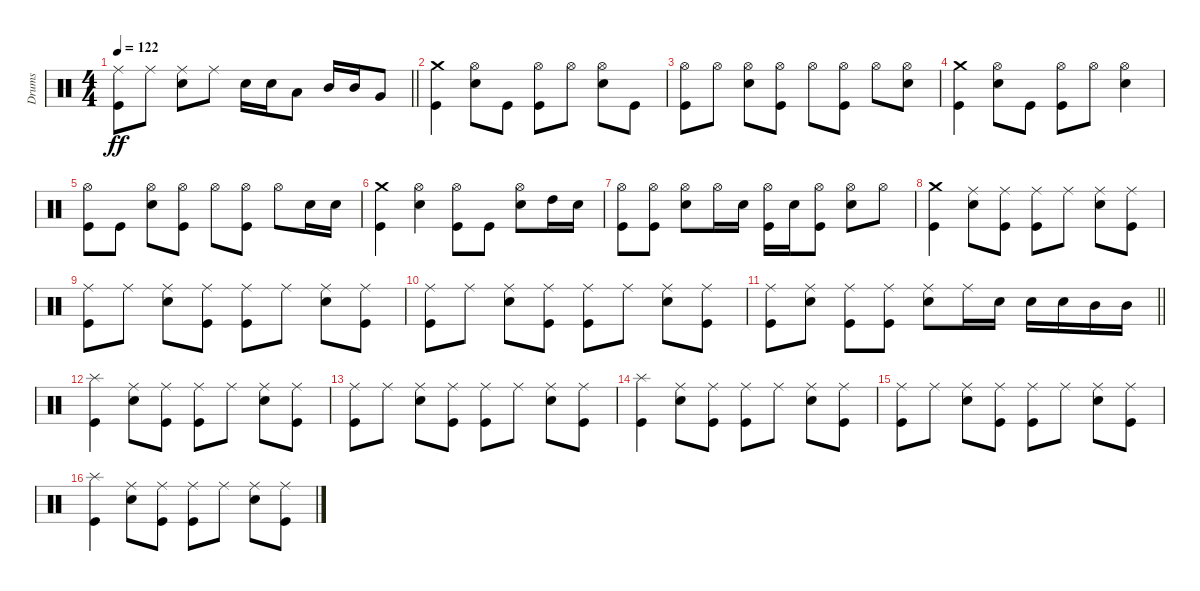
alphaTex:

\track ("Drums" "Drums") {instrument percussion}
\staff {score}
\articulation defaults
\ts (4 4)
\tempo 122
\clef neutral
\barLineRight lightlight
\ks c
("Ride (middle)" "Kick (hit)").8{dy ff} "Ride (middle)".8 ("Ride (middle)" "Snare (hit) 2").8 "Ride (middle)".8 "Snare (hit) 2".16 "Snare (hit) 2".16 "Low Tom (hit)".8 "Mid Tom (hit)".16 "Mid Tom (hit)".16 "Very Low Tom (hit)".8 |
("Crash medium (hit)" "Kick (hit)").4 ("Hi-Hat (open)" "Snare (hit) 2").8 "Kick (hit)".8 ("Hi-Hat (open)" "Kick (hit)").8 "Hi-Hat (open)".8 ("Hi-Hat (open)" "Snare (hit) 2").8 "Kick (hit)".8 |
("Hi-Hat (open)" "Kick (hit)").8 "Hi-Hat (open)".8 ("Hi-Hat (open)" "Snare (hit) 2").8 ("Hi-Hat (open)" "Kick (hit)").8 "Hi-Hat (open)".8 ("Hi-Hat (open)" "Kick (hit)").8 "Hi-Hat (open)".8 ("Hi-Hat (open)" "Snare (hit) 2").8 |
("Crash medium (hit)" "Kick (hit)").4 ("Hi-Hat (open)" "Snare (hit) 2").8 "Kick (hit)".8 ("Hi-Hat (open)" "Kick (hit)").8 "Hi-Hat (open)".8 ("Hi-Hat (open)" "Snare (hit) 2").4 |
("Hi-Hat (open)" "Kick (hit)").8 "Kick (hit)".8 ("Hi-Hat (open)" "Snare (hit) 2").8 ("Hi-Hat (open)" "Kick (hit)").8 "Hi-Hat (open)".8 ("Hi-Hat (open)" "Kick (hit)").8 "Hi-Hat (open)".8 "Snare (hit) 2".16 "Snare (hit) 2".16 |
("Crash medium (hit)" "Kick (hit)").4 ("Hi-Hat (open)" "Snare (hit) 2").4 ("Hi-Hat (open)" "Kick (hit)").8 "Kick (hit)".8 ("Hi-Hat (open)" "Snare (hit) 2").8 "High Tom (hit)".16 "Snare (hit) 2".16 |
("Hi-Hat (open)" "Kick (hit)").8 ("Hi-Hat (open)" "Kick (hit)").8 ("Hi-Hat (open)" "Snare (hit) 2").8 "Hi-Hat (open)".16 "Snare (hit) 2".16 ("Hi-Hat (open)" "Kick (hit)").16 "Snare (hit) 2".16 ("Hi-Hat (open)" "Kick (hit)").8 ("Hi-Hat (open)" "Snare (hit) 2").8 "Hi-Hat (open)".8 |
("Crash medium (hit)" "Kick (hit)").4 ("Ride (middle)" "Snare (hit) 2").8 ("Ride (middle)" "Kick (hit)").8 ("Ride (middle)" "Kick (hit)").8 "Ride (middle)".8 ("Ride (middle)" "Snare (hit) 2").8 ("Ride (middle)" "Kick (hit)").8 |
("Ride (middle)" "Kick (hit)").8 "Ride (middle)".8 ("Ride (middle)" "Snare (hit) 2").8 ("Ride (middle)" "Kick (hit)").8 ("Ride (middle)" "Kick (hit)").8 "Ride (middle)".8 ("Ride (middle)" "Snare (hit) 2").8 ("Ride (middle)" "Kick (hit)").8 |
("Ride (middle)" "Kick (hit)").8 "Ride (middle)".8 ("Ride (middle)" "Snare (hit) 2").8 ("Ride (middle)" "Kick (hit)").8 ("Ride (middle)" "Kick (hit)").8 "Ride (middle)".8 ("Ride (middle)" "Snare (hit) 2").8 ("Ride (middle)" "Kick (hit)").8 |
\barLineRight lightlight
("Ride (middle)" "Kick (hit)").8 ("Ride (middle)" "Snare (hit) 2").8 ("Ride (middle)" "Kick (hit)").8 ("Ride (middle)" "Kick (hit)").8 ("Ride (middle)" "Snare (hit) 2").8 "Ride (middle)".16 "Snare (hit) 2".16 "Snare (hit) 2".16 "Snare (hit) 2".16 "Mid Tom (hit)".16 "Mid Tom (hit)".16 |
("Splash (hit)" "Kick (hit)").4 ("Ride (middle)" "Snare (hit) 2").8 ("Ride (middle)" "Kick (hit)").8 ("Ride (middle)" "Kick (hit)").8 "Ride (middle)".8 ("Ride (middle)" "Snare (hit) 2").8 ("Ride (middle)" "Kick (hit)").8 |
("Ride (middle)" "Kick (hit)").8 "Ride (middle)".8 ("Ride (middle)" "Snare (hit) 2").8 ("Ride (middle)" "Kick (hit)").8 ("Ride (middle)" "Kick (hit)").8 "Ride (middle)".8 ("Ride (middle)" "Snare (hit) 2").8 ("Ride (middle)" "Kick (hit)").8 |
("Splash (hit)" "Kick (hit)").4 ("Ride (middle)" "Snare (hit) 2").8 ("Ride (middle)" "Kick (hit)").8 ("Ride (middle)" "Kick (hit)").8 "Ride (middle)".8 ("Ride (middle)" "Snare (hit) 2").8 ("Ride (middle)" "Kick (hit)").8 |
("Ride (middle)" "Kick (hit)").8 "Ride (middle)".8 ("Ride (middle)" "Snare (hit) 2").8 ("Ride (middle)" "Kick (hit)").8 ("Ride (middle)" "Kick (hit)").8 "Ride (middle)".8 ("Ride (middle)" "Snare (hit) 2").8 ("Ride (middle)" "Kick (hit)").8 |
("Splash (hit)" "Kick (hit)").4 ("Ride (middle)" "Snare (hit) 2").8 ("Ride (middle)" "Kick (hit)").8 ("Ride (middle)" "Kick (hit)").8 "Ride (middle)".8 ("Ride (middle)" "Snare (hit) 2").8 ("Ride (middle)" "Kick (hit)").8
